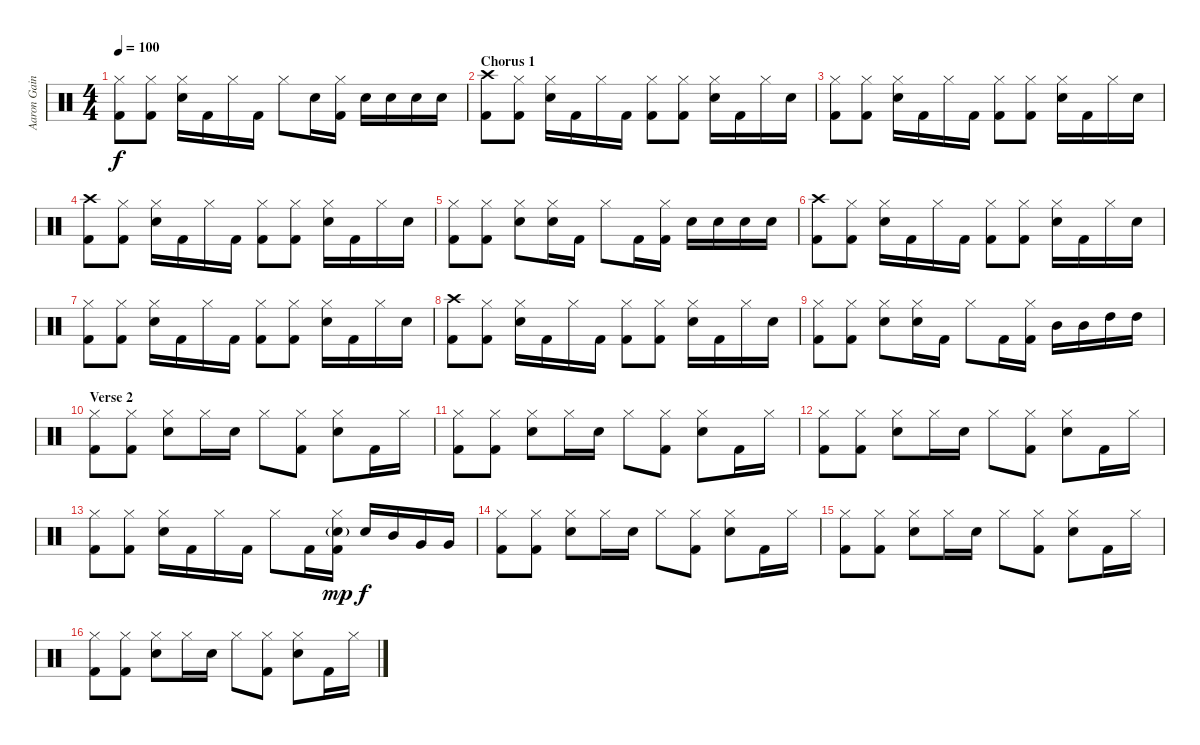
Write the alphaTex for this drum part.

\track ("Aaron Gainer" "Aaron Gain") {instrument percussion}
\staff {score}
\articulation defaults
\ts (4 4)
\tempo 100
\clef neutral
\ks c
("Hi-Hat (closed)" "Kick (hit) 2").8{dy f} ("Hi-Hat (closed)" "Kick (hit) 2").8 ("Hi-Hat (closed)" "Snare (hit) 2").16 "Kick (hit) 2".16 "Hi-Hat (closed)".16 "Kick (hit) 2".16 "Hi-Hat (closed)".8 "Snare (hit) 2".16 ("Hi-Hat (closed)" "Kick (hit) 2").16 "Snare (hit) 2".16 "Snare (hit) 2".16 "Snare (hit) 2".16 "Snare (hit) 2".16 |
\section ("" "Chorus 1")
("Crash high (hit)" "Kick (hit) 2").8 ("Hi-Hat (closed)" "Kick (hit) 2").8 ("Hi-Hat (closed)" "Snare (hit) 2").16 "Kick (hit) 2".16 "Hi-Hat (closed)".16 "Kick (hit) 2".16 ("Hi-Hat (closed)" "Kick (hit) 2").8 ("Hi-Hat (closed)" "Kick (hit) 2").8 ("Hi-Hat (closed)" "Snare (hit) 2").16 "Kick (hit) 2".16 "Hi-Hat (closed)".16 "Snare (hit) 2".16 |
("Hi-Hat (closed)" "Kick (hit) 2").8 ("Hi-Hat (closed)" "Kick (hit) 2").8 ("Hi-Hat (closed)" "Snare (hit) 2").16 "Kick (hit) 2".16 "Hi-Hat (closed)".16 "Kick (hit) 2".16 ("Hi-Hat (closed)" "Kick (hit) 2").8 ("Hi-Hat (closed)" "Kick (hit) 2").8 ("Hi-Hat (closed)" "Snare (hit) 2").16 "Kick (hit) 2".16 "Hi-Hat (closed)".16 "Snare (hit) 2".16 |
("Crash high (hit)" "Kick (hit) 2").8 ("Hi-Hat (closed)" "Kick (hit) 2").8 ("Hi-Hat (closed)" "Snare (hit) 2").16 "Kick (hit) 2".16 "Hi-Hat (closed)".16 "Kick (hit) 2".16 ("Hi-Hat (closed)" "Kick (hit) 2").8 ("Hi-Hat (closed)" "Kick (hit) 2").8 ("Hi-Hat (closed)" "Snare (hit) 2").16 "Kick (hit) 2".16 "Hi-Hat (closed)".16 "Snare (hit) 2".16 |
("Hi-Hat (closed)" "Kick (hit) 2").8 ("Hi-Hat (closed)" "Kick (hit) 2").8 ("Hi-Hat (closed)" "Snare (hit) 2").8 ("Hi-Hat (closed)" "Snare (hit) 2").16 "Kick (hit) 2".16 "Hi-Hat (closed)".8 "Kick (hit) 2".16 ("Hi-Hat (closed)" "Kick (hit) 2").16 "Electric Snare (hit)".16 "Electric Snare (hit)".16 "Electric Snare (hit)".16 "Electric Snare (hit)".16 |
("Crash high (hit)" "Kick (hit) 2").8 ("Hi-Hat (closed)" "Kick (hit) 2").8 ("Hi-Hat (closed)" "Snare (hit) 2").16 "Kick (hit) 2".16 "Hi-Hat (closed)".16 "Kick (hit) 2".16 ("Hi-Hat (closed)" "Kick (hit) 2").8 ("Hi-Hat (closed)" "Kick (hit) 2").8 ("Hi-Hat (closed)" "Snare (hit) 2").16 "Kick (hit) 2".16 "Hi-Hat (closed)".16 "Snare (hit) 2".16 |
("Hi-Hat (closed)" "Kick (hit) 2").8 ("Hi-Hat (closed)" "Kick (hit) 2").8 ("Hi-Hat (closed)" "Snare (hit) 2").16 "Kick (hit) 2".16 "Hi-Hat (closed)".16 "Kick (hit) 2".16 ("Hi-Hat (closed)" "Kick (hit) 2").8 ("Hi-Hat (closed)" "Kick (hit) 2").8 ("Hi-Hat (closed)" "Snare (hit) 2").16 "Kick (hit) 2".16 "Hi-Hat (closed)".16 "Snare (hit) 2".16 |
("Crash high (hit)" "Kick (hit) 2").8 ("Hi-Hat (closed)" "Kick (hit) 2").8 ("Hi-Hat (closed)" "Snare (hit) 2").16 "Kick (hit) 2".16 "Hi-Hat (closed)".16 "Kick (hit) 2".16 ("Hi-Hat (closed)" "Kick (hit) 2").8 ("Hi-Hat (closed)" "Kick (hit) 2").8 ("Hi-Hat (closed)" "Snare (hit) 2").16 "Kick (hit) 2".16 "Hi-Hat (closed)".16 "Snare (hit) 2".16 |
("Hi-Hat (closed)" "Kick (hit) 2").8 ("Hi-Hat (closed)" "Kick (hit) 2").8 ("Hi-Hat (closed)" "Snare (hit) 2").8 ("Hi-Hat (closed)" "Snare (hit) 2").16 "Kick (hit) 2".16 "Hi-Hat (closed)".8 "Kick (hit) 2".16 ("Hi-Hat (closed)" "Kick (hit) 2").16 "Mid Tom (hit)".16 "Mid Tom (hit)".16 "High Tom (hit)".16 "High Tom (hit)".16 |
\section ("" "Verse 2")
("Hi-Hat (closed)" "Kick (hit) 2").8 ("Hi-Hat (closed)" "Kick (hit) 2").8 ("Hi-Hat (closed)" "Snare (hit) 2").8 "Hi-Hat (closed)".16 "Snare (hit) 2".16 "Hi-Hat (closed)".8 ("Hi-Hat (closed)" "Kick (hit) 2").8 ("Hi-Hat (closed)" "Snare (hit) 2").8 "Kick (hit) 2".16 "Hi-Hat (closed)".16 |
("Hi-Hat (closed)" "Kick (hit) 2").8 ("Hi-Hat (closed)" "Kick (hit) 2").8 ("Hi-Hat (closed)" "Snare (hit) 2").8 "Hi-Hat (closed)".16 "Snare (hit) 2".16 "Hi-Hat (closed)".8 ("Hi-Hat (closed)" "Kick (hit) 2").8 ("Hi-Hat (closed)" "Snare (hit) 2").8 "Kick (hit) 2".16 "Hi-Hat (closed)".16 |
("Hi-Hat (closed)" "Kick (hit) 2").8 ("Hi-Hat (closed)" "Kick (hit) 2").8 ("Hi-Hat (closed)" "Snare (hit) 2").8 "Hi-Hat (closed)".16 "Snare (hit) 2".16 "Hi-Hat (closed)".8 ("Hi-Hat (closed)" "Kick (hit) 2").8 ("Hi-Hat (closed)" "Snare (hit) 2").8 "Kick (hit) 2".16 "Hi-Hat (closed)".16 |
("Hi-Hat (closed)" "Kick (hit) 2").8 ("Hi-Hat (closed)" "Kick (hit) 2").8 ("Hi-Hat (closed)" "Snare (hit) 2").16 "Kick (hit) 2".16 "Hi-Hat (closed)".16 "Kick (hit) 2".16 "Hi-Hat (closed)".8 "Kick (hit) 2".16 ("Hi-Hat (closed)" "Snare (hit) 2"{g} "Kick (hit) 2").16{dy mp} "Electric Snare (hit)".16{dy f} "Mid Tom (hit)".16 "Very Low Tom (hit)".16 "Very Low Tom (hit)".16 |
("Hi-Hat (closed)" "Kick (hit) 2").8 ("Hi-Hat (closed)" "Kick (hit) 2").8 ("Hi-Hat (closed)" "Snare (hit) 2").8 "Hi-Hat (closed)".16 "Snare (hit) 2".16 "Hi-Hat (closed)".8 ("Hi-Hat (closed)" "Kick (hit) 2").8 ("Hi-Hat (closed)" "Snare (hit) 2").8 "Kick (hit) 2".16 "Hi-Hat (closed)".16 |
("Hi-Hat (closed)" "Kick (hit) 2").8 ("Hi-Hat (closed)" "Kick (hit) 2").8 ("Hi-Hat (closed)" "Snare (hit) 2").8 "Hi-Hat (closed)".16 "Snare (hit) 2".16 "Hi-Hat (closed)".8 ("Hi-Hat (closed)" "Kick (hit) 2").8 ("Hi-Hat (closed)" "Snare (hit) 2").8 "Kick (hit) 2".16 "Hi-Hat (closed)".16 |
("Hi-Hat (closed)" "Kick (hit) 2").8 ("Hi-Hat (closed)" "Kick (hit) 2").8 ("Hi-Hat (closed)" "Snare (hit) 2").8 "Hi-Hat (closed)".16 "Snare (hit) 2".16 "Hi-Hat (closed)".8 ("Hi-Hat (closed)" "Kick (hit) 2").8 ("Hi-Hat (closed)" "Snare (hit) 2").8 "Kick (hit) 2".16 "Hi-Hat (closed)".16
